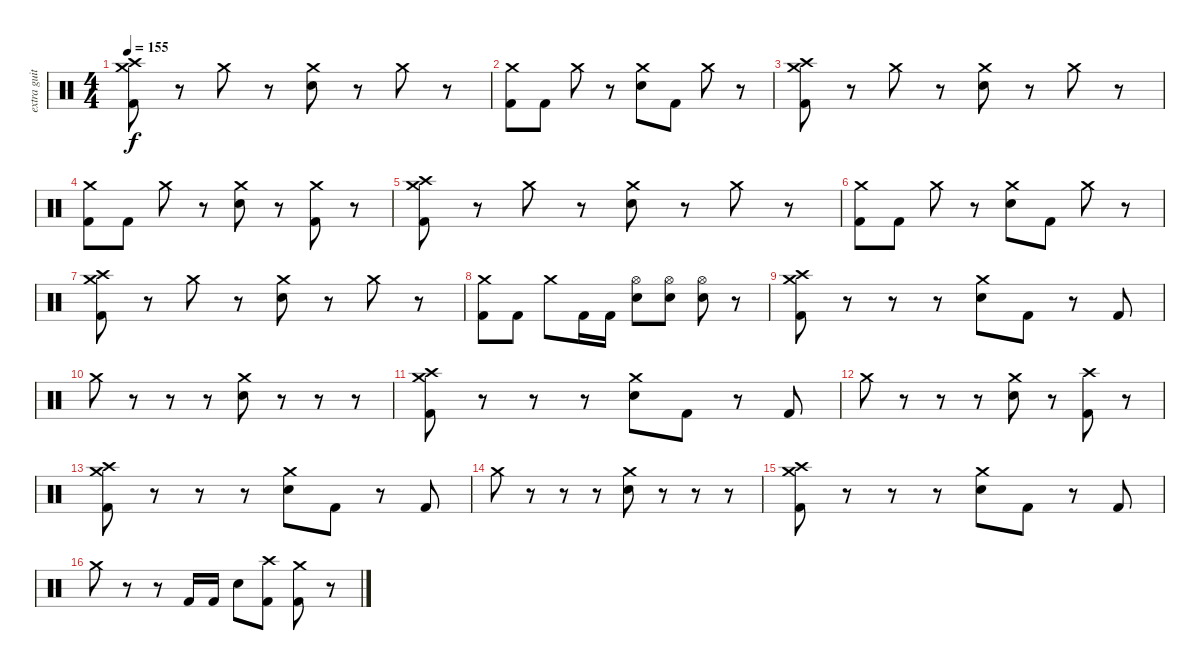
\track ("extra guitar" "extra guit") {instrument percussion}
\staff {score}
\articulation defaults
\ts (4 4)
\tempo 155
\clef neutral
\ks c
("Crash medium (hit)" "Crash high (hit)" "Kick (hit) 2").8{dy f} r.8 "Crash medium (hit)".8 r.8 ("Crash medium (hit)" "Electric Snare (hit)").8 r.8 "Crash medium (hit)".8 r.8 |
("Crash medium (hit)" "Kick (hit) 2").8 "Kick (hit) 2".8 "Crash medium (hit)".8 r.8 ("Crash medium (hit)" "Electric Snare (hit)").8 "Kick (hit) 2".8 "Crash medium (hit)".8 r.8 |
("Crash medium (hit)" "Crash high (hit)" "Kick (hit) 2").8 r.8 "Crash medium (hit)".8 r.8 ("Crash medium (hit)" "Electric Snare (hit)").8 r.8 "Crash medium (hit)".8 r.8 |
("Crash medium (hit)" "Kick (hit) 2").8 "Kick (hit) 2".8 "Crash medium (hit)".8 r.8 ("Crash medium (hit)" "Electric Snare (hit)").8 r.8 ("Crash medium (hit)" "Kick (hit) 2").8 r.8 |
("Crash medium (hit)" "Crash high (hit)" "Kick (hit) 2").8 r.8 "Crash medium (hit)".8 r.8 ("Crash medium (hit)" "Electric Snare (hit)").8 r.8 "Crash medium (hit)".8 r.8 |
("Crash medium (hit)" "Kick (hit) 2").8 "Kick (hit) 2".8 "Crash medium (hit)".8 r.8 ("Crash medium (hit)" "Electric Snare (hit)").8 "Kick (hit) 2".8 "Crash medium (hit)".8 r.8 |
("Crash medium (hit)" "Crash high (hit)" "Kick (hit) 2").8 r.8 "Crash medium (hit)".8 r.8 ("Crash medium (hit)" "Electric Snare (hit)").8 r.8 "Crash medium (hit)".8 r.8 |
("Crash medium (hit)" "Kick (hit) 2").8 "Kick (hit) 2".8 "Crash medium (hit)".8 "Kick (hit) 2".16 "Kick (hit) 2".16 ("Hi-Hat (open)" "Electric Snare (hit)").8 ("Hi-Hat (open)" "Electric Snare (hit)").8 ("Hi-Hat (open)" "Electric Snare (hit)").8 r.8 |
("Crash medium (hit)" "Crash high (hit)" "Kick (hit) 2").8 r.8 r.8 r.8 ("Crash medium (hit)" "Electric Snare (hit)").8 "Kick (hit) 2".8 r.8 "Kick (hit) 2".8 |
"Crash medium (hit)".8 r.8 r.8 r.8 ("Crash medium (hit)" "Electric Snare (hit)").8 r.8 r.8 r.8 |
("Crash medium (hit)" "Crash high (hit)" "Kick (hit) 2").8 r.8 r.8 r.8 ("Crash medium (hit)" "Electric Snare (hit)").8 "Kick (hit) 2".8 r.8 "Kick (hit) 2".8 |
"Crash medium (hit)".8 r.8 r.8 r.8 ("Crash medium (hit)" "Electric Snare (hit)").8 r.8 ("Crash high (hit)" "Kick (hit) 2").8 r.8 |
("Crash medium (hit)" "Crash high (hit)" "Kick (hit) 2").8 r.8 r.8 r.8 ("Crash medium (hit)" "Electric Snare (hit)").8 "Kick (hit) 2".8 r.8 "Kick (hit) 2".8 |
"Crash medium (hit)".8 r.8 r.8 r.8 ("Crash medium (hit)" "Electric Snare (hit)").8 r.8 r.8 r.8 |
("Crash medium (hit)" "Crash high (hit)" "Kick (hit) 2").8 r.8 r.8 r.8 ("Crash medium (hit)" "Electric Snare (hit)").8 "Kick (hit) 2".8 r.8 "Kick (hit) 2".8 |
"Crash medium (hit)".8 r.8 r.8 "Kick (hit) 2".16 "Kick (hit) 2".16 "Electric Snare (hit)".8 ("Crash high (hit)" "Kick (hit) 2").8 ("Crash medium (hit)" "Kick (hit) 2").8 r.8
